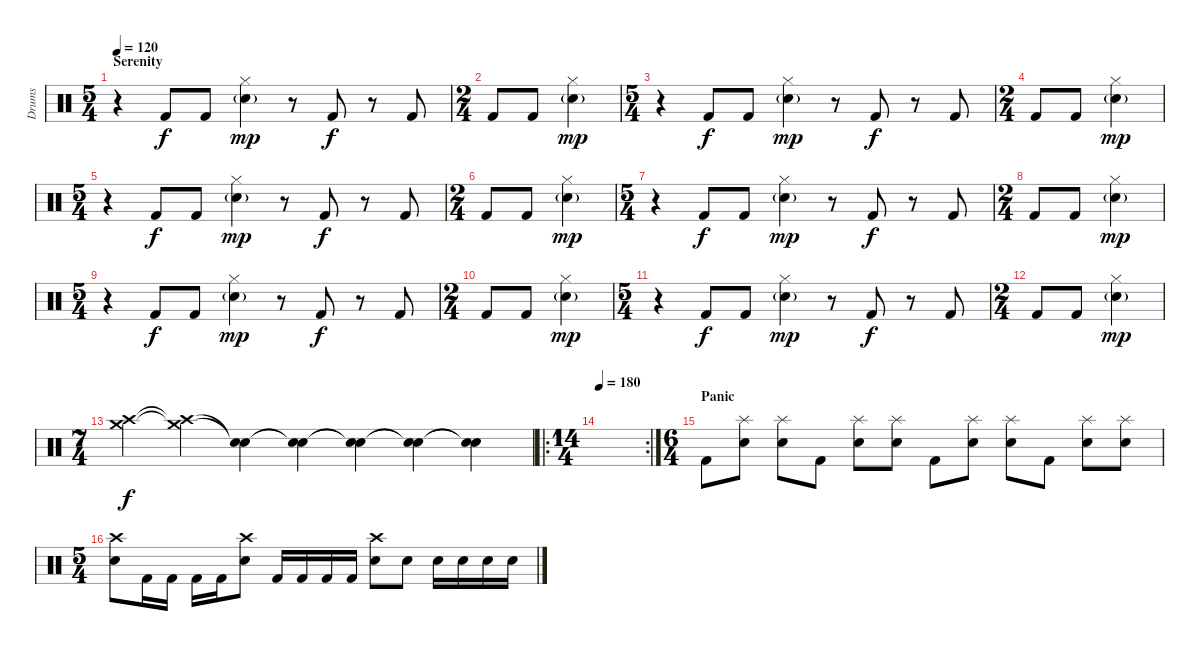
\track ("Drums" "Drums") {instrument percussion}
\staff {score}
\articulation defaults
\ts (5 4)
\section ("" "Serenity")
\tempo 120
\clef neutral
\ks c
r.4{dy f} "Kick (hit) 2".8 "Kick (hit) 2".8 ("Hi-Hat (closed)" "Snare (hit) 2"{g}).4{dy mp} r.8 "Kick (hit) 2".8{dy f} r.8 "Kick (hit) 2".8 |
\ts (2 4)
"Kick (hit) 2".8 "Kick (hit) 2".8 ("Hi-Hat (closed)" "Snare (hit) 2"{g}).4{dy mp} |
\ts (5 4)
r.4 "Kick (hit) 2".8{dy f} "Kick (hit) 2".8 ("Hi-Hat (closed)" "Snare (hit) 2"{g}).4{dy mp} r.8 "Kick (hit) 2".8{dy f} r.8 "Kick (hit) 2".8 |
\ts (2 4)
"Kick (hit) 2".8 "Kick (hit) 2".8 ("Hi-Hat (closed)" "Snare (hit) 2"{g}).4{dy mp} |
\ts (5 4)
r.4 "Kick (hit) 2".8{dy f} "Kick (hit) 2".8 ("Hi-Hat (closed)" "Snare (hit) 2"{g}).4{dy mp} r.8 "Kick (hit) 2".8{dy f} r.8 "Kick (hit) 2".8 |
\ts (2 4)
"Kick (hit) 2".8 "Kick (hit) 2".8 ("Hi-Hat (closed)" "Snare (hit) 2"{g}).4{dy mp} |
\ts (5 4)
r.4 "Kick (hit) 2".8{dy f} "Kick (hit) 2".8 ("Hi-Hat (closed)" "Snare (hit) 2"{g}).4{dy mp} r.8 "Kick (hit) 2".8{dy f} r.8 "Kick (hit) 2".8 |
\ts (2 4)
"Kick (hit) 2".8 "Kick (hit) 2".8 ("Hi-Hat (closed)" "Snare (hit) 2"{g}).4{dy mp} |
\ts (5 4)
r.4 "Kick (hit) 2".8{dy f} "Kick (hit) 2".8 ("Hi-Hat (closed)" "Snare (hit) 2"{g}).4{dy mp} r.8 "Kick (hit) 2".8{dy f} r.8 "Kick (hit) 2".8 |
\ts (2 4)
"Kick (hit) 2".8 "Kick (hit) 2".8 ("Hi-Hat (closed)" "Snare (hit) 2"{g}).4{dy mp} |
\ts (5 4)
r.4 "Kick (hit) 2".8{dy f} "Kick (hit) 2".8 ("Hi-Hat (closed)" "Snare (hit) 2"{g}).4{dy mp} r.8 "Kick (hit) 2".8{dy f} r.8 "Kick (hit) 2".8 |
\ts (2 4)
"Kick (hit) 2".8 "Kick (hit) 2".8 ("Hi-Hat (closed)" "Snare (hit) 2"{g}).4{dy mp} |
\ts (7 4)
("Crash medium (hit)" "Crash high (hit)").4{dy f} ("Crash medium (hit)"{t} "Crash high (hit)"{t}).4 ("Snare (hit)"{t} "Snare (hit)"{t}).4 ("Snare (hit)"{t} "Snare (hit)"{t}).4 ("Snare (hit)"{t} "Snare (hit)"{t}).4 ("Snare (hit)"{t} "Snare (hit)"{t}).4 ("Snare (hit)"{t} "Snare (hit)"{t}).4 |
\ro
\rc 2
\ts (14 4)
\tempo 180
|
\ts (6 4)
\section ("" "Panic")
"Kick (hit) 2".8 ("Splash (hit)" "Snare (hit) 2").8 ("Splash (hit)" "Snare (hit) 2").8 "Kick (hit) 2".8 ("Splash (hit)" "Snare (hit) 2").8 ("Splash (hit)" "Snare (hit) 2").8 "Kick (hit) 2".8 ("Splash (hit)" "Snare (hit) 2").8 ("Splash (hit)" "Snare (hit) 2").8 "Kick (hit) 2".8 ("Splash (hit)" "Snare (hit) 2").8 ("Splash (hit)" "Snare (hit) 2").8 |
\ts (5 4)
("Crash high (hit)" "Snare (hit) 2").8 "Kick (hit) 2".16 "Kick (hit) 2".16 "Kick (hit) 2".16 "Kick (hit) 2".16 ("Crash high (hit)" "Snare (hit) 2").8 "Kick (hit) 2".16 "Kick (hit) 2".16 "Kick (hit) 2".16 "Kick (hit) 2".16 ("Crash high (hit)" "Snare (hit) 2").8 "Snare (hit) 2".8 "Snare (hit) 2".16 "Snare (hit) 2".16 "Snare (hit) 2".16 "Snare (hit) 2".16
